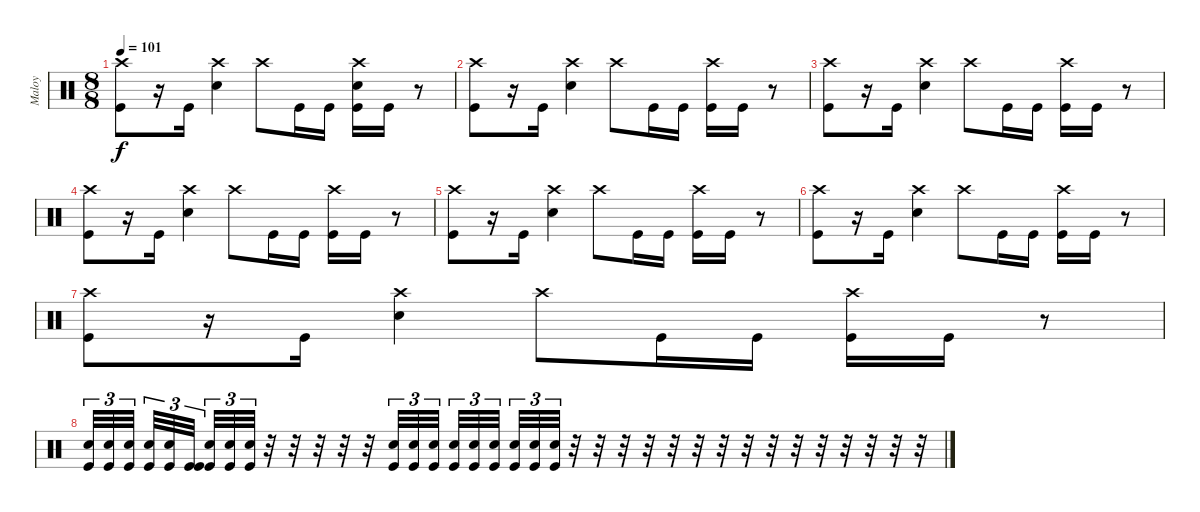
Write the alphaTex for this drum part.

\track ("Maloy" "Maloy") {instrument percussion}
\staff {score}
\articulation defaults
\ts (8 8)
\tempo 101
\clef neutral
\ks c
("Crash high (hit)" "Kick (hit)").8{dy f} r.16 "Kick (hit)".16 ("Crash high (hit)" "Snare (hit) 2").4 "Crash high (hit)".8 "Kick (hit)".16 "Kick (hit)".16 ("Crash high (hit)" "Snare (hit) 2" "Kick (hit)").16 "Kick (hit)".16 r.8 |
("Crash high (hit)" "Kick (hit)").8 r.16 "Kick (hit)".16 ("Crash high (hit)" "Snare (hit) 2").4 "Crash high (hit)".8 "Kick (hit)".16 "Kick (hit)".16 ("Crash high (hit)" "Kick (hit)").16 "Kick (hit)".16 r.8 |
("Crash high (hit)" "Kick (hit)").8 r.16 "Kick (hit)".16 ("Crash high (hit)" "Snare (hit) 2").4 "Crash high (hit)".8 "Kick (hit)".16 "Kick (hit)".16 ("Crash high (hit)" "Kick (hit)").16 "Kick (hit)".16 r.8 |
("Crash high (hit)" "Kick (hit)").8 r.16 "Kick (hit)".16 ("Crash high (hit)" "Snare (hit) 2").4 "Crash high (hit)".8 "Kick (hit)".16 "Kick (hit)".16 ("Crash high (hit)" "Kick (hit)").16 "Kick (hit)".16 r.8 |
("Crash high (hit)" "Kick (hit)").8 r.16 "Kick (hit)".16 ("Crash high (hit)" "Snare (hit) 2").4 "Crash high (hit)".8 "Kick (hit)".16 "Kick (hit)".16 ("Crash high (hit)" "Kick (hit)").16 "Kick (hit)".16 r.8 |
("Crash high (hit)" "Kick (hit)").8 r.16 "Kick (hit)".16 ("Crash high (hit)" "Snare (hit) 2").4 "Crash high (hit)".8 "Kick (hit)".16 "Kick (hit)".16 ("Crash high (hit)" "Kick (hit)").16 "Kick (hit)".16 r.8 |
("Crash high (hit)" "Kick (hit)").8 r.16 "Kick (hit)".16 ("Crash high (hit)" "Snare (hit) 2").4 "Crash high (hit)".8 "Kick (hit)".16 "Kick (hit)".16 ("Crash high (hit)" "Kick (hit)").16 "Kick (hit)".16 r.8 |
("Snare (hit) 2" "Kick (hit)").32{tu (3 2)} ("Snare (hit) 2" "Kick (hit)").32{tu (3 2)} ("Snare (hit) 2" "Kick (hit)").32{tu (3 2) beam splitsecondary} ("Snare (hit) 2" "Kick (hit)").32{tu (3 2)} ("Snare (hit) 2" "Kick (hit)").32{tu (3 2)} ("Kick (hit)" "Kick (hit)").32{tu (3 2)} ("Snare (hit) 2" "Kick (hit)").32{tu (3 2)} ("Snare (hit) 2" "Kick (hit)").32{tu (3 2)} ("Snare (hit) 2" "Kick (hit)").32{tu (3 2)} r.32 r.32 r.32 r.32 r.32 ("Snare (hit) 2" "Kick (hit)").32{tu (3 2)} ("Snare (hit) 2" "Kick (hit)").32{tu (3 2)} ("Snare (hit) 2" "Kick (hit)").32{tu (3 2) beam splitsecondary} ("Snare (hit) 2" "Kick (hit)").32{tu (3 2)} ("Snare (hit) 2" "Kick (hit)").32{tu (3 2)} ("Snare (hit) 2" "Kick (hit)").32{tu (3 2) beam splitsecondary} ("Snare (hit) 2" "Kick (hit)").32{tu (3 2)} ("Snare (hit) 2" "Kick (hit)").32{tu (3 2)} ("Snare (hit) 2" "Kick (hit)").32{tu (3 2)} r.32 r.32 r.32 r.32 r.32 r.32 r.32 r.32 r.32 r.32 r.32 r.32 r.32 r.32 r.32
